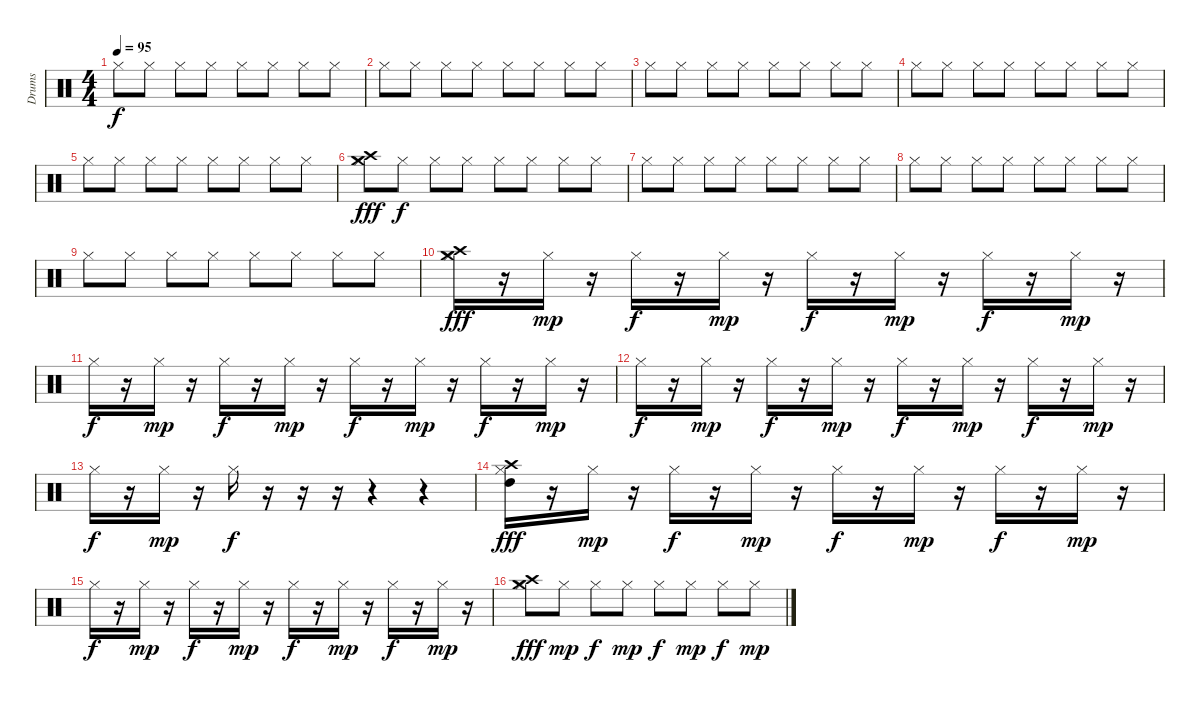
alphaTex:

\bracketExtendMode groupsimilarinstruments
\otherSystemsTrackNameOrientation horizontal
\track ("Drumkit" "Drums") {instrument percussion}
\staff {score}
\articulation defaults
\ts (4 4)
\tempo 95
\clef neutral
\ks c "Hi-Hat (closed)".8{dy f} "Hi-Hat (closed)".8 "Hi-Hat (closed)".8 "Hi-Hat (closed)".8 "Hi-Hat (closed)".8 "Hi-Hat (closed)".8 "Hi-Hat (closed)".8 "Hi-Hat (closed)".8
|
"Hi-Hat (closed)".8 "Hi-Hat (closed)".8 "Hi-Hat (closed)".8 "Hi-Hat (closed)".8 "Hi-Hat (closed)".8 "Hi-Hat (closed)".8 "Hi-Hat (closed)".8 "Hi-Hat (closed)".8 |
"Hi-Hat (closed)".8 "Hi-Hat (closed)".8 "Hi-Hat (closed)".8 "Hi-Hat (closed)".8 "Hi-Hat (closed)".8 "Hi-Hat (closed)".8 "Hi-Hat (closed)".8 "Hi-Hat (closed)".8 |
"Hi-Hat (closed)".8 "Hi-Hat (closed)".8 "Hi-Hat (closed)".8 "Hi-Hat (closed)".8 "Hi-Hat (closed)".8 "Hi-Hat (closed)".8 "Hi-Hat (closed)".8 "Hi-Hat (closed)".8 |
"Hi-Hat (closed)".8 "Hi-Hat (closed)".8 "Hi-Hat (closed)".8 "Hi-Hat (closed)".8 "Hi-Hat (closed)".8 "Hi-Hat (closed)".8 "Hi-Hat (closed)".8 "Hi-Hat (closed)".8 |
("Crash medium (hit)" "Crash high (hit)" "Hi-Hat (closed)").8{dy fff} "Hi-Hat (closed)".8{dy f} "Hi-Hat (closed)".8 "Hi-Hat (closed)".8 "Hi-Hat (closed)".8 "Hi-Hat (closed)".8 "Hi-Hat (closed)".8 "Hi-Hat (closed)".8 |
"Hi-Hat (closed)".8 "Hi-Hat (closed)".8 "Hi-Hat (closed)".8 "Hi-Hat (closed)".8 "Hi-Hat (closed)".8 "Hi-Hat (closed)".8 "Hi-Hat (closed)".8 "Hi-Hat (closed)".8 |
"Hi-Hat (closed)".8 "Hi-Hat (closed)".8 "Hi-Hat (closed)".8 "Hi-Hat (closed)".8 "Hi-Hat (closed)".8 "Hi-Hat (closed)".8 "Hi-Hat (closed)".8 "Hi-Hat (closed)".8 |
"Hi-Hat (closed)".8 "Hi-Hat (closed)".8 "Hi-Hat (closed)".8 "Hi-Hat (closed)".8 "Hi-Hat (closed)".8 "Hi-Hat (closed)".8 "Hi-Hat (closed)".8 "Hi-Hat (closed)".8 |
("Crash high (hit)" "Crash medium (hit)" "Hi-Hat (closed)").16{dy fff} r.16 "Hi-Hat (closed)".16{dy mp} r.16 "Hi-Hat (closed)".16{dy f} r.16 "Hi-Hat (closed)".16{dy mp} r.16 "Hi-Hat (closed)".16{dy f} r.16 "Hi-Hat (closed)".16{dy mp} r.16 "Hi-Hat (closed)".16{dy f} r.16 "Hi-Hat (closed)".16{dy mp} r.16 |
"Hi-Hat (closed)".16{dy f} r.16 "Hi-Hat (closed)".16{dy mp} r.16 "Hi-Hat (closed)".16{dy f} r.16 "Hi-Hat (closed)".16{dy mp} r.16 "Hi-Hat (closed)".16{dy f} r.16 "Hi-Hat (closed)".16{dy mp} r.16 "Hi-Hat (closed)".16{dy f} r.16 "Hi-Hat (closed)".16{dy mp} r.16 |
"Hi-Hat (closed)".16{dy f} r.16 "Hi-Hat (closed)".16{dy mp} r.16 "Hi-Hat (closed)".16{dy f} r.16 "Hi-Hat (closed)".16{dy mp} r.16 "Hi-Hat (closed)".16{dy f} r.16 "Hi-Hat (closed)".16{dy mp} r.16 "Hi-Hat (closed)".16{dy f} r.16 "Hi-Hat (closed)".16{dy mp} r.16 |
"Hi-Hat (closed)".16{dy f} r.16 "Hi-Hat (closed)".16{dy mp} r.16 "Hi-Hat (closed)".16{dy f} r.16 r.16 r.16 r.4 r.4 |
("Crash high (hit)" "High Tom (hit)" "Hi-Hat (closed)").16{dy fff} r.16 "Hi-Hat (closed)".16{dy mp} r.16 "Hi-Hat (closed)".16{dy f} r.16 "Hi-Hat (closed)".16{dy mp} r.16 "Hi-Hat (closed)".16{dy f} r.16 "Hi-Hat (closed)".16{dy mp} r.16 "Hi-Hat (closed)".16{dy f} r.16 "Hi-Hat (closed)".16{dy mp} r.16 |
"Hi-Hat (closed)".16{dy f} r.16 "Hi-Hat (closed)".16{dy mp} r.16 "Hi-Hat (closed)".16{dy f} r.16 "Hi-Hat (closed)".16{dy mp} r.16 "Hi-Hat (closed)".16{dy f} r.16 "Hi-Hat (closed)".16{dy mp} r.16 "Hi-Hat (closed)".16{dy f} r.16 "Hi-Hat (closed)".16{dy mp} r.16 |
("Crash medium (hit)" "Crash high (hit)" "Hi-Hat (closed)").8{dy fff} "Hi-Hat (closed)".8{dy mp} "Hi-Hat (closed)".8{dy f} "Hi-Hat (closed)".8{dy mp} "Hi-Hat (closed)".8{dy f} "Hi-Hat (closed)".8{dy mp} "Hi-Hat (closed)".8{dy f} "Hi-Hat (closed)".8{dy mp}
